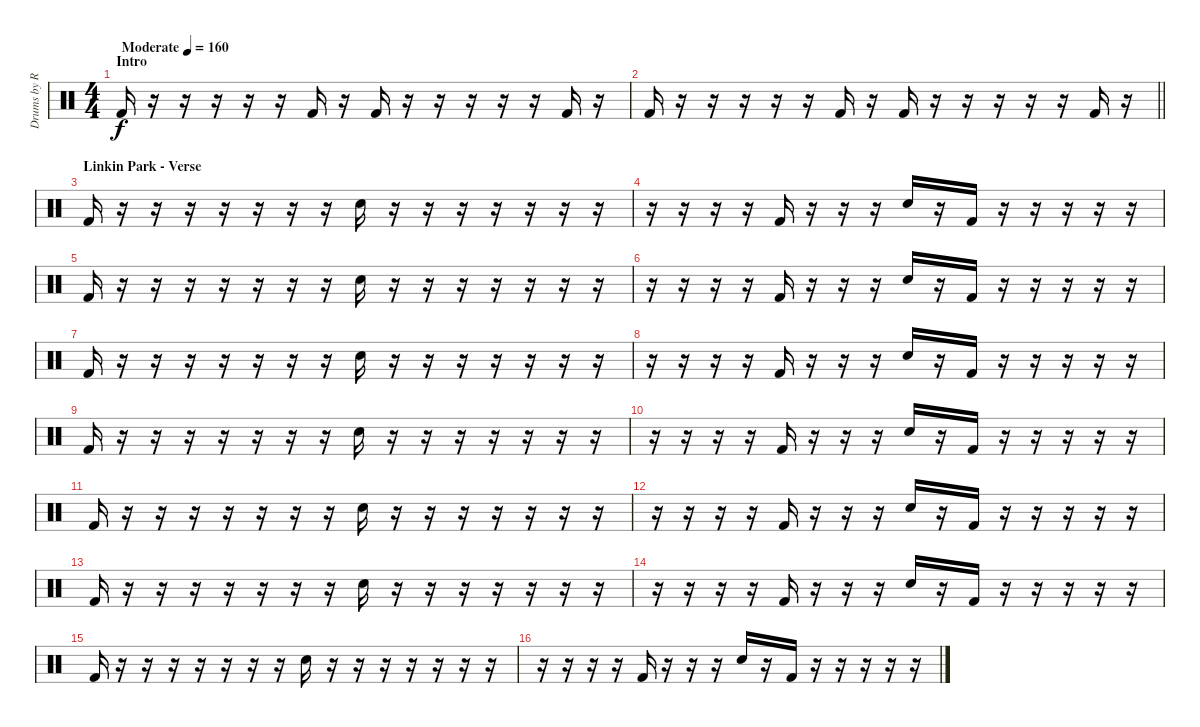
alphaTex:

\track ("Drums by Rob Bourdon" "Drums by R") {instrument percussion}
\staff {score}
\articulation defaults
\ts (4 4)
\section ("" "Intro")
\tempo (160 "Moderate")
\clef neutral
\ks c "Kick (hit) 2".16{dy f}
r.16 r.16 r.16 r.16 r.16 "Kick (hit) 2".16 r.16 "Kick (hit) 2".16 r.16 r.16 r.16 r.16 r.16 "Kick (hit) 2".16 r.16 |
\barLineRight lightlight "Kick (hit) 2".16
r.16 r.16 r.16 r.16 r.16 "Kick (hit) 2".16 r.16 "Kick (hit) 2".16 r.16 r.16 r.16 r.16 r.16 "Kick (hit) 2".16 r.16 |
\section ("" "Linkin Park - Verse")
"Kick (hit) 2".16 r.16 r.16 r.16 r.16 r.16 r.16 r.16 "Snare (hit) 2".16 r.16 r.16 r.16 r.16 r.16 r.16 r.16 |
r.16 r.16 r.16 r.16 "Kick (hit) 2".16 r.16 r.16 r.16 "Snare (hit) 2".16 r.16 "Kick (hit) 2".16 r.16 r.16 r.16 r.16 r.16 |
"Kick (hit) 2".16 r.16 r.16 r.16 r.16 r.16 r.16 r.16 "Snare (hit) 2".16 r.16 r.16 r.16 r.16 r.16 r.16 r.16 |
r.16 r.16 r.16 r.16 "Kick (hit) 2".16 r.16 r.16 r.16 "Snare (hit) 2".16 r.16 "Kick (hit) 2".16 r.16 r.16 r.16 r.16 r.16 |
"Kick (hit) 2".16 r.16 r.16 r.16 r.16 r.16 r.16 r.16 "Snare (hit) 2".16 r.16 r.16 r.16 r.16 r.16 r.16 r.16 |
r.16 r.16 r.16 r.16 "Kick (hit) 2".16 r.16 r.16 r.16 "Snare (hit) 2".16 r.16 "Kick (hit) 2".16 r.16 r.16 r.16 r.16 r.16 |
"Kick (hit) 2".16 r.16 r.16 r.16 r.16 r.16 r.16 r.16 "Snare (hit) 2".16 r.16 r.16 r.16 r.16 r.16 r.16 r.16 |
r.16 r.16 r.16 r.16 "Kick (hit) 2".16 r.16 r.16 r.16 "Snare (hit) 2".16 r.16 "Kick (hit) 2".16 r.16 r.16 r.16 r.16 r.16 |
"Kick (hit) 2".16 r.16 r.16 r.16 r.16 r.16 r.16 r.16 "Snare (hit) 2".16 r.16 r.16 r.16 r.16 r.16 r.16 r.16 |
r.16 r.16 r.16 r.16 "Kick (hit) 2".16 r.16 r.16 r.16 "Snare (hit) 2".16 r.16 "Kick (hit) 2".16 r.16 r.16 r.16 r.16 r.16 |
"Kick (hit) 2".16 r.16 r.16 r.16 r.16 r.16 r.16 r.16 "Snare (hit) 2".16 r.16 r.16 r.16 r.16 r.16 r.16 r.16 |
r.16 r.16 r.16 r.16 "Kick (hit) 2".16 r.16 r.16 r.16 "Snare (hit) 2".16 r.16 "Kick (hit) 2".16 r.16 r.16 r.16 r.16 r.16 |
"Kick (hit) 2".16 r.16 r.16 r.16 r.16 r.16 r.16 r.16 "Snare (hit) 2".16 r.16 r.16 r.16 r.16 r.16 r.16 r.16 |
r.16 r.16 r.16 r.16 "Kick (hit) 2".16 r.16 r.16 r.16 "Snare (hit) 2".16 r.16 "Kick (hit) 2".16 r.16 r.16 r.16 r.16 r.16
